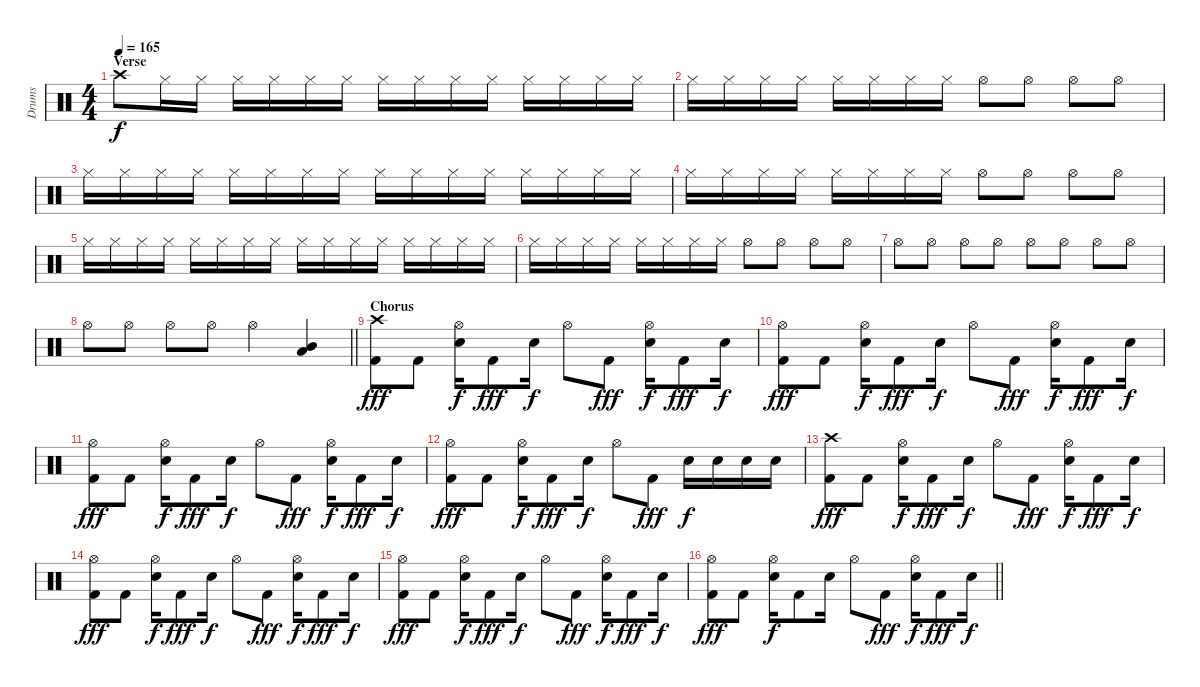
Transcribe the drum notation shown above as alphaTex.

\track ("Drums" "Drums") {instrument percussion}
\staff {score}
\articulation defaults
\ts (4 4)
\section ("" "Verse")
\tempo 165
\clef neutral
\ks c "Crash high (hit)".8{dy f} "Hi-Hat (closed)".16 "Hi-Hat (closed)".16 "Hi-Hat (closed)".16 "Hi-Hat (closed)".16 "Hi-Hat (closed)".16 "Hi-Hat (closed)".16 "Hi-Hat (closed)".16 "Hi-Hat (closed)".16 "Hi-Hat (closed)".16 "Hi-Hat (closed)".16 "Hi-Hat (closed)".16 "Hi-Hat (closed)".16 "Hi-Hat (closed)".16 "Hi-Hat (closed)".16
|
"Hi-Hat (closed)".16 "Hi-Hat (closed)".16 "Hi-Hat (closed)".16 "Hi-Hat (closed)".16 "Hi-Hat (closed)".16 "Hi-Hat (closed)".16 "Hi-Hat (closed)".16 "Hi-Hat (closed)".16 "Hi-Hat (open)".8 "Hi-Hat (open)".8 "Hi-Hat (open)".8 "Hi-Hat (open)".8 |
"Hi-Hat (closed)".16 "Hi-Hat (closed)".16 "Hi-Hat (closed)".16 "Hi-Hat (closed)".16 "Hi-Hat (closed)".16 "Hi-Hat (closed)".16 "Hi-Hat (closed)".16 "Hi-Hat (closed)".16 "Hi-Hat (closed)".16 "Hi-Hat (closed)".16 "Hi-Hat (closed)".16 "Hi-Hat (closed)".16 "Hi-Hat (closed)".16 "Hi-Hat (closed)".16 "Hi-Hat (closed)".16 "Hi-Hat (closed)".16 |
"Hi-Hat (closed)".16 "Hi-Hat (closed)".16 "Hi-Hat (closed)".16 "Hi-Hat (closed)".16 "Hi-Hat (closed)".16 "Hi-Hat (closed)".16 "Hi-Hat (closed)".16 "Hi-Hat (closed)".16 "Hi-Hat (open)".8 "Hi-Hat (open)".8 "Hi-Hat (open)".8 "Hi-Hat (open)".8 |
"Hi-Hat (closed)".16 "Hi-Hat (closed)".16 "Hi-Hat (closed)".16 "Hi-Hat (closed)".16 "Hi-Hat (closed)".16 "Hi-Hat (closed)".16 "Hi-Hat (closed)".16 "Hi-Hat (closed)".16 "Hi-Hat (closed)".16 "Hi-Hat (closed)".16 "Hi-Hat (closed)".16 "Hi-Hat (closed)".16 "Hi-Hat (closed)".16 "Hi-Hat (closed)".16 "Hi-Hat (closed)".16 "Hi-Hat (closed)".16 |
"Hi-Hat (closed)".16 "Hi-Hat (closed)".16 "Hi-Hat (closed)".16 "Hi-Hat (closed)".16 "Hi-Hat (closed)".16 "Hi-Hat (closed)".16 "Hi-Hat (closed)".16 "Hi-Hat (closed)".16 "Hi-Hat (open)".8 "Hi-Hat (open)".8 "Hi-Hat (open)".8 "Hi-Hat (open)".8 |
"Hi-Hat (open)".8 "Hi-Hat (open)".8 "Hi-Hat (open)".8 "Hi-Hat (open)".8 "Hi-Hat (open)".8 "Hi-Hat (open)".8 "Hi-Hat (open)".8 "Hi-Hat (open)".8 |
\barLineRight lightlight "Hi-Hat (open)".8 "Hi-Hat (open)".8 "Hi-Hat (open)".8 "Hi-Hat (open)".8 "Hi-Hat (open)".4
("Mid Tom (hit)" "Low Floor Tom (hit)").4 |
\section ("" "Chorus")
("Crash high (hit)" "Kick (hit) 2").8{dy fff} "Kick (hit) 2".8 ("Hi-Hat (open)" "Snare (hit) 2").16{dy f} "Kick (hit) 2".8{dy fff} "Snare (hit) 2".16{dy f} "Hi-Hat (open)".8 "Kick (hit) 2".8{dy fff} ("Hi-Hat (open)" "Snare (hit) 2").16{dy f} "Kick (hit) 2".8{dy fff} "Snare (hit) 2".16{dy f} |
("Hi-Hat (open)" "Kick (hit) 2").8{dy fff} "Kick (hit) 2".8 ("Hi-Hat (open)" "Snare (hit) 2").16{dy f} "Kick (hit) 2".8{dy fff} "Snare (hit) 2".16{dy f} "Hi-Hat (open)".8 "Kick (hit) 2".8{dy fff} ("Hi-Hat (open)" "Snare (hit) 2").16{dy f} "Kick (hit) 2".8{dy fff} "Snare (hit) 2".16{dy f} |
("Hi-Hat (open)" "Kick (hit) 2").8{dy fff} "Kick (hit) 2".8 ("Hi-Hat (open)" "Snare (hit) 2").16{dy f} "Kick (hit) 2".8{dy fff} "Snare (hit) 2".16{dy f} "Hi-Hat (open)".8 "Kick (hit) 2".8{dy fff} ("Hi-Hat (open)" "Snare (hit) 2").16{dy f} "Kick (hit) 2".8{dy fff} "Snare (hit) 2".16{dy f} |
("Hi-Hat (open)" "Kick (hit) 2").8{dy fff} "Kick (hit) 2".8 ("Hi-Hat (open)" "Snare (hit) 2").16{dy f} "Kick (hit) 2".8{dy fff} "Snare (hit) 2".16{dy f} "Hi-Hat (open)".8 "Kick (hit) 2".8{dy fff} "Snare (hit) 2".16{dy f} "Snare (hit) 2".16 "Snare (hit) 2".16 "Snare (hit) 2".16 |
("Crash high (hit)" "Kick (hit) 2").8{dy fff} "Kick (hit) 2".8 ("Hi-Hat (open)" "Snare (hit) 2").16{dy f} "Kick (hit) 2".8{dy fff} "Snare (hit) 2".16{dy f} "Hi-Hat (open)".8 "Kick (hit) 2".8{dy fff} ("Hi-Hat (open)" "Snare (hit) 2").16{dy f} "Kick (hit) 2".8{dy fff} "Snare (hit) 2".16{dy f} |
("Hi-Hat (open)" "Kick (hit) 2").8{dy fff} "Kick (hit) 2".8 ("Hi-Hat (open)" "Snare (hit) 2").16{dy f} "Kick (hit) 2".8{dy fff} "Snare (hit) 2".16{dy f} "Hi-Hat (open)".8 "Kick (hit) 2".8{dy fff} ("Hi-Hat (open)" "Snare (hit) 2").16{dy f} "Kick (hit) 2".8{dy fff} "Snare (hit) 2".16{dy f} |
("Hi-Hat (open)" "Kick (hit) 2").8{dy fff} "Kick (hit) 2".8 ("Hi-Hat (open)" "Snare (hit) 2").16{dy f} "Kick (hit) 2".8{dy fff} "Snare (hit) 2".16{dy f} "Hi-Hat (open)".8 "Kick (hit) 2".8{dy fff} ("Hi-Hat (open)" "Snare (hit) 2").16{dy f} "Kick (hit) 2".8{dy fff} "Snare (hit) 2".16{dy f} |
\barLineRight lightlight
("Hi-Hat (open)" "Kick (hit) 2").8{dy fff} "Kick (hit) 2".8 ("Hi-Hat (open)" "Snare (hit) 2").16{dy f} "Kick (hit) 2".8 "Snare (hit) 2".16 "Hi-Hat (open)".8 "Kick (hit) 2".8{dy fff} ("Hi-Hat (open)" "Snare (hit) 2").16{dy f} "Kick (hit) 2".8{dy fff} "Snare (hit) 2".16{dy f}
